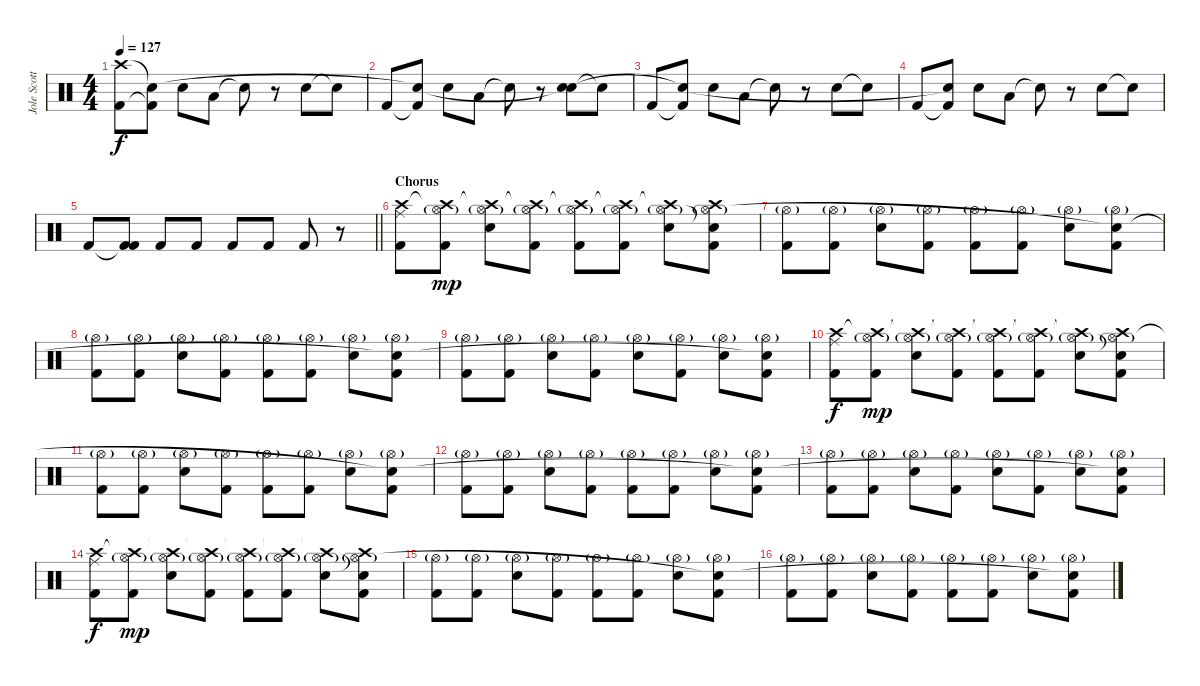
\track ("Jole Scott Key" "Jole Scott") {instrument percussion}
\staff {score}
\articulation defaults
\ts (4 4)
\tempo 127
\clef neutral
\ks c
("Kick (hit) 2" "Crash high (hit)").8{dy f} ("Kick (hit) 2"{t} "Electric Snare (hit)"{t}).8 "Electric Snare (hit)".8 "Low Floor Tom (hit)".8 "Snare (hit)"{t}.8 r.8 "Electric Snare (hit)".8 "Electric Snare (hit)"{t}.8 |
"Kick (hit) 2".8 ("Kick (hit) 2"{t} "Electric Snare (hit)"{t}).8 "Electric Snare (hit)".8 "Low Floor Tom (hit)".8 "Snare (hit)"{t}.8 r.8 ("Electric Snare (hit)" "Snare (hit)"{t}).8 "Electric Snare (hit)"{t}.8 |
"Kick (hit) 2".8 ("Kick (hit) 2"{t} "Electric Snare (hit)"{t}).8 "Electric Snare (hit)".8 "Low Floor Tom (hit)".8 "Snare (hit)"{t}.8 r.8 "Electric Snare (hit)".8 "Electric Snare (hit)"{t}.8 |
"Kick (hit) 2".8 ("Kick (hit) 2"{t} "Electric Snare (hit)"{t}).8 "Electric Snare (hit)".8 "Low Floor Tom (hit)".8 "Snare (hit)"{t}.8 r.8 "Electric Snare (hit)".8 "Electric Snare (hit)"{t}.8 |
\barLineRight lightlight "Kick (hit) 2".8
("Kick (hit) 2"{t} "Kick (hit) 2").8 "Kick (hit) 2".8 "Kick (hit) 2".8 "Kick (hit) 2".8 "Kick (hit) 2".8 "Kick (hit) 2".8 r.8 |
\section ("" "Chorus")
("Kick (hit) 2" "Ride (middle)" "Crash high (hit)").8 ("Kick (hit) 2" "Hi-Hat (open)"{g} "Crash high (hit)"{t}).8{dy mp} ("Electric Snare (hit)" "Hi-Hat (open)"{g} "Crash high (hit)"{t}).8 ("Kick (hit) 2" "Hi-Hat (open)"{g} "Crash high (hit)"{t}).8 ("Kick (hit) 2" "Hi-Hat (open)"{g} "Crash high (hit)"{t}).8 ("Kick (hit) 2" "Hi-Hat (open)"{g} "Crash high (hit)"{t}).8 ("Electric Snare (hit)" "Hi-Hat (open)"{g} "Crash high (hit)"{t}).8 ("Kick (hit) 2" "Snare (hit)"{t} "Hi-Hat (open)"{g} "Crash high (hit)").8 |
("Kick (hit) 2" "Hi-Hat (open)"{g}).8 ("Kick (hit) 2" "Hi-Hat (open)"{g}).8 ("Electric Snare (hit)" "Hi-Hat (open)"{g}).8 ("Kick (hit) 2" "Hi-Hat (open)"{g}).8 ("Kick (hit) 2" "Hi-Hat (open)"{g}).8 ("Kick (hit) 2" "Hi-Hat (open)"{g}).8 ("Electric Snare (hit)" "Hi-Hat (open)"{g}).8 ("Kick (hit) 2" "Hi-Hat (open)"{g} "Snare (hit)"{t}).8 |
("Kick (hit) 2" "Hi-Hat (open)"{g}).8 ("Kick (hit) 2" "Hi-Hat (open)"{g}).8 ("Electric Snare (hit)" "Hi-Hat (open)"{g}).8 ("Kick (hit) 2" "Hi-Hat (open)"{g}).8 ("Kick (hit) 2" "Hi-Hat (open)"{g}).8 ("Kick (hit) 2" "Hi-Hat (open)"{g}).8 ("Electric Snare (hit)" "Hi-Hat (open)"{g}).8 ("Kick (hit) 2" "Hi-Hat (open)"{g} "Snare (hit)"{t}).8 |
("Kick (hit) 2" "Hi-Hat (open)"{g}).8 ("Kick (hit) 2" "Hi-Hat (open)"{g}).8 ("Electric Snare (hit)" "Hi-Hat (open)"{g}).8 ("Kick (hit) 2" "Hi-Hat (open)"{g}).8 ("Electric Snare (hit)" "Hi-Hat (open)"{g}).8 ("Kick (hit) 2" "Hi-Hat (open)"{g}).8 ("Electric Snare (hit)" "Hi-Hat (open)"{g}).8 ("Kick (hit) 2" "Hi-Hat (open)"{g} "Snare (hit)"{t}).8 |
("Kick (hit) 2" "Ride (middle)" "Crash high (hit)").8{dy f} ("Kick (hit) 2" "Hi-Hat (open)"{g} "Crash high (hit)"{t}).8{dy mp} ("Electric Snare (hit)" "Hi-Hat (open)"{g} "Crash high (hit)"{t}).8 ("Kick (hit) 2" "Hi-Hat (open)"{g} "Crash high (hit)"{t}).8 ("Kick (hit) 2" "Hi-Hat (open)"{g} "Crash high (hit)"{t}).8 ("Kick (hit) 2" "Hi-Hat (open)"{g} "Crash high (hit)"{t}).8 ("Electric Snare (hit)" "Hi-Hat (open)"{g} "Crash high (hit)"{t}).8 ("Kick (hit) 2" "Snare (hit)"{t} "Hi-Hat (open)"{g} "Crash high (hit)").8 |
("Kick (hit) 2" "Hi-Hat (open)"{g}).8 ("Kick (hit) 2" "Hi-Hat (open)"{g}).8 ("Electric Snare (hit)" "Hi-Hat (open)"{g}).8 ("Kick (hit) 2" "Hi-Hat (open)"{g}).8 ("Kick (hit) 2" "Hi-Hat (open)"{g}).8 ("Kick (hit) 2" "Hi-Hat (open)"{g}).8 ("Electric Snare (hit)" "Hi-Hat (open)"{g}).8 ("Kick (hit) 2" "Hi-Hat (open)"{g} "Snare (hit)"{t}).8 |
("Kick (hit) 2" "Hi-Hat (open)"{g}).8 ("Kick (hit) 2" "Hi-Hat (open)"{g}).8 ("Electric Snare (hit)" "Hi-Hat (open)"{g}).8 ("Kick (hit) 2" "Hi-Hat (open)"{g}).8 ("Kick (hit) 2" "Hi-Hat (open)"{g}).8 ("Kick (hit) 2" "Hi-Hat (open)"{g}).8 ("Electric Snare (hit)" "Hi-Hat (open)"{g}).8 ("Kick (hit) 2" "Hi-Hat (open)"{g} "Snare (hit)"{t}).8 |
("Kick (hit) 2" "Hi-Hat (open)"{g}).8 ("Kick (hit) 2" "Hi-Hat (open)"{g}).8 ("Electric Snare (hit)" "Hi-Hat (open)"{g}).8 ("Kick (hit) 2" "Hi-Hat (open)"{g}).8 ("Electric Snare (hit)" "Hi-Hat (open)"{g}).8 ("Kick (hit) 2" "Hi-Hat (open)"{g}).8 ("Electric Snare (hit)" "Hi-Hat (open)"{g}).8 ("Kick (hit) 2" "Hi-Hat (open)"{g} "Snare (hit)"{t}).8 |
("Kick (hit) 2" "Ride (middle)" "Crash high (hit)").8{dy f} ("Kick (hit) 2" "Hi-Hat (open)"{g} "Crash high (hit)"{t}).8{dy mp} ("Electric Snare (hit)" "Hi-Hat (open)"{g} "Crash high (hit)"{t}).8 ("Kick (hit) 2" "Hi-Hat (open)"{g} "Crash high (hit)"{t}).8 ("Kick (hit) 2" "Hi-Hat (open)"{g} "Crash high (hit)"{t}).8 ("Kick (hit) 2" "Hi-Hat (open)"{g} "Crash high (hit)"{t}).8 ("Electric Snare (hit)" "Hi-Hat (open)"{g} "Crash high (hit)"{t}).8 ("Kick (hit) 2" "Snare (hit)"{t} "Hi-Hat (open)"{g} "Crash high (hit)").8 |
("Kick (hit) 2" "Hi-Hat (open)"{g}).8 ("Kick (hit) 2" "Hi-Hat (open)"{g}).8 ("Electric Snare (hit)" "Hi-Hat (open)"{g}).8 ("Kick (hit) 2" "Hi-Hat (open)"{g}).8 ("Kick (hit) 2" "Hi-Hat (open)"{g}).8 ("Kick (hit) 2" "Hi-Hat (open)"{g}).8 ("Electric Snare (hit)" "Hi-Hat (open)"{g}).8 ("Kick (hit) 2" "Hi-Hat (open)"{g} "Snare (hit)"{t}).8 |
("Kick (hit) 2" "Hi-Hat (open)"{g}).8 ("Kick (hit) 2" "Hi-Hat (open)"{g}).8 ("Electric Snare (hit)" "Hi-Hat (open)"{g}).8 ("Kick (hit) 2" "Hi-Hat (open)"{g}).8 ("Kick (hit) 2" "Hi-Hat (open)"{g}).8 ("Kick (hit) 2" "Hi-Hat (open)"{g}).8 ("Electric Snare (hit)" "Hi-Hat (open)"{g}).8 ("Kick (hit) 2" "Hi-Hat (open)"{g} "Snare (hit)"{t}).8
